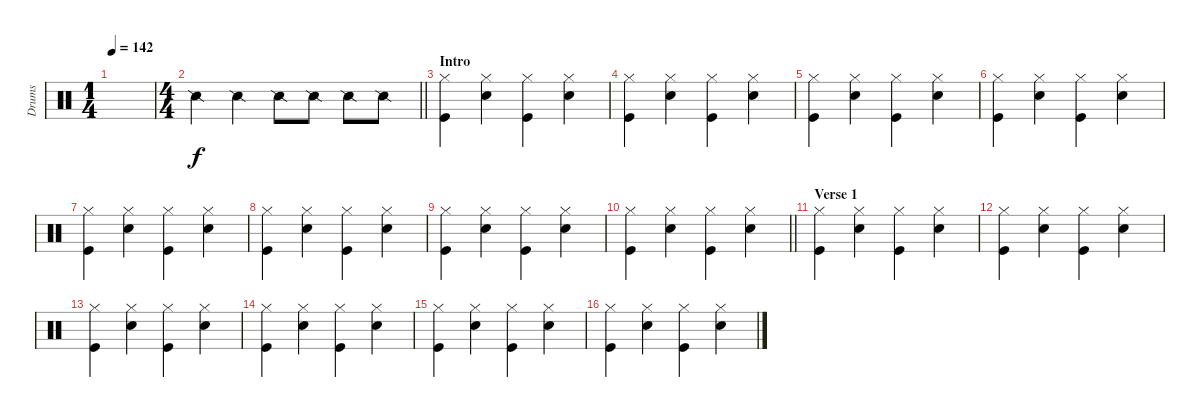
\track ("Drums" "Drums") {instrument percussion}
\staff {score}
\articulation defaults
\ts (1 4)
\tempo 142
\clef neutral
\ks c
|
\ts (4 4)
\barLineRight lightlight "Snare (side stick) 2".4 "Snare (side stick) 2".4 "Snare (side stick) 2".8 "Snare (side stick) 2".8 "Snare (side stick) 2".8 "Snare (side stick) 2".8
|
\section ("" "Intro")
("Hi-Hat (closed)" "Kick (hit)").4 ("Hi-Hat (closed)" "Snare (hit) 2").4 ("Hi-Hat (closed)" "Kick (hit)").4 ("Hi-Hat (closed)" "Snare (hit) 2").4 |
("Hi-Hat (closed)" "Kick (hit)").4 ("Hi-Hat (closed)" "Snare (hit) 2").4 ("Hi-Hat (closed)" "Kick (hit)").4 ("Hi-Hat (closed)" "Snare (hit) 2").4 |
("Hi-Hat (closed)" "Kick (hit)").4 ("Hi-Hat (closed)" "Snare (hit) 2").4 ("Hi-Hat (closed)" "Kick (hit)").4 ("Hi-Hat (closed)" "Snare (hit) 2").4 |
("Hi-Hat (closed)" "Kick (hit)").4 ("Hi-Hat (closed)" "Snare (hit) 2").4 ("Hi-Hat (closed)" "Kick (hit)").4 ("Hi-Hat (closed)" "Snare (hit) 2").4 |
("Hi-Hat (closed)" "Kick (hit)").4 ("Hi-Hat (closed)" "Snare (hit) 2").4 ("Hi-Hat (closed)" "Kick (hit)").4 ("Hi-Hat (closed)" "Snare (hit) 2").4 |
("Hi-Hat (closed)" "Kick (hit)").4 ("Hi-Hat (closed)" "Snare (hit) 2").4 ("Hi-Hat (closed)" "Kick (hit)").4 ("Hi-Hat (closed)" "Snare (hit) 2").4 |
("Hi-Hat (closed)" "Kick (hit)").4 ("Hi-Hat (closed)" "Snare (hit) 2").4 ("Hi-Hat (closed)" "Kick (hit)").4 ("Hi-Hat (closed)" "Snare (hit) 2").4 |
\barLineRight lightlight
("Hi-Hat (closed)" "Kick (hit)").4 ("Hi-Hat (closed)" "Snare (hit) 2").4 ("Hi-Hat (closed)" "Kick (hit)").4 ("Hi-Hat (closed)" "Snare (hit) 2").4 |
\section ("" "Verse 1")
("Hi-Hat (closed)" "Kick (hit)").4 ("Hi-Hat (closed)" "Snare (hit) 2").4 ("Hi-Hat (closed)" "Kick (hit)").4 ("Hi-Hat (closed)" "Snare (hit) 2").4 |
("Hi-Hat (closed)" "Kick (hit)").4 ("Hi-Hat (closed)" "Snare (hit) 2").4 ("Hi-Hat (closed)" "Kick (hit)").4 ("Hi-Hat (closed)" "Snare (hit) 2").4 |
("Hi-Hat (closed)" "Kick (hit)").4 ("Hi-Hat (closed)" "Snare (hit) 2").4 ("Hi-Hat (closed)" "Kick (hit)").4 ("Hi-Hat (closed)" "Snare (hit) 2").4 |
("Hi-Hat (closed)" "Kick (hit)").4 ("Hi-Hat (closed)" "Snare (hit) 2").4 ("Hi-Hat (closed)" "Kick (hit)").4 ("Hi-Hat (closed)" "Snare (hit) 2").4 |
("Hi-Hat (closed)" "Kick (hit)").4 ("Hi-Hat (closed)" "Snare (hit) 2").4 ("Hi-Hat (closed)" "Kick (hit)").4 ("Hi-Hat (closed)" "Snare (hit) 2").4 |
("Hi-Hat (closed)" "Kick (hit)").4 ("Hi-Hat (closed)" "Snare (hit) 2").4 ("Hi-Hat (closed)" "Kick (hit)").4 ("Hi-Hat (closed)" "Snare (hit) 2").4
